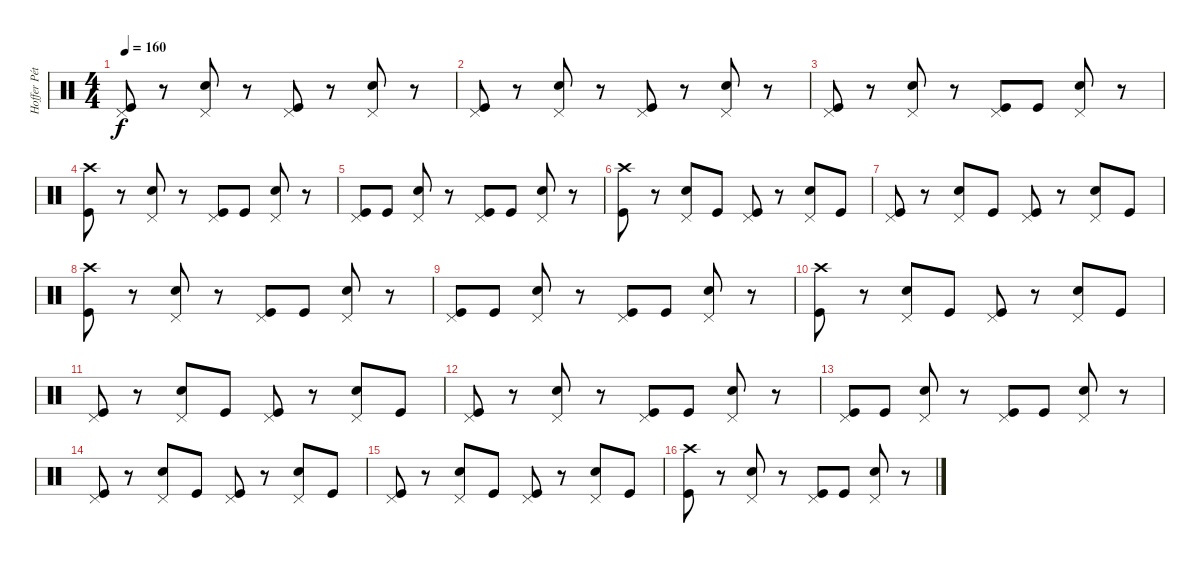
\track ("Hoffer Péter" "Hoffer Pét") {instrument percussion}
\staff {score}
\articulation defaults
\ts (4 4)
\tempo 160
\clef neutral
\ks c
("Pedal Hi-Hat (hit)" "Kick (hit)").8{dy f} r.8 ("Pedal Hi-Hat (hit)" "Electric Snare (hit)").8 r.8 ("Pedal Hi-Hat (hit)" "Kick (hit)").8 r.8 ("Pedal Hi-Hat (hit)" "Electric Snare (hit)").8 r.8 |
("Pedal Hi-Hat (hit)" "Kick (hit)").8 r.8 ("Pedal Hi-Hat (hit)" "Electric Snare (hit)").8 r.8 ("Pedal Hi-Hat (hit)" "Kick (hit)").8 r.8 ("Pedal Hi-Hat (hit)" "Electric Snare (hit)").8 r.8 |
("Pedal Hi-Hat (hit)" "Kick (hit)").8 r.8 ("Pedal Hi-Hat (hit)" "Electric Snare (hit)").8 r.8 ("Pedal Hi-Hat (hit)" "Kick (hit)").8 "Kick (hit)".8 ("Pedal Hi-Hat (hit)" "Electric Snare (hit)").8 r.8 |
("Crash high (hit)" "Kick (hit)").8 r.8 ("Pedal Hi-Hat (hit)" "Electric Snare (hit)").8 r.8 ("Pedal Hi-Hat (hit)" "Kick (hit)").8 "Kick (hit)".8 ("Pedal Hi-Hat (hit)" "Electric Snare (hit)").8 r.8 |
("Pedal Hi-Hat (hit)" "Kick (hit)").8 "Kick (hit)".8 ("Pedal Hi-Hat (hit)" "Electric Snare (hit)").8 r.8 ("Pedal Hi-Hat (hit)" "Kick (hit)").8 "Kick (hit)".8 ("Pedal Hi-Hat (hit)" "Electric Snare (hit)").8 r.8 |
("Crash high (hit)" "Kick (hit)").8 r.8 ("Pedal Hi-Hat (hit)" "Electric Snare (hit)").8 "Kick (hit)".8 ("Pedal Hi-Hat (hit)" "Kick (hit)").8 r.8 ("Pedal Hi-Hat (hit)" "Electric Snare (hit)").8 "Kick (hit)".8 |
("Pedal Hi-Hat (hit)" "Kick (hit)").8 r.8 ("Pedal Hi-Hat (hit)" "Electric Snare (hit)").8 "Kick (hit)".8 ("Pedal Hi-Hat (hit)" "Kick (hit)").8 r.8 ("Pedal Hi-Hat (hit)" "Electric Snare (hit)").8 "Kick (hit)".8 |
("Crash high (hit)" "Kick (hit)").8 r.8 ("Pedal Hi-Hat (hit)" "Electric Snare (hit)").8 r.8 ("Pedal Hi-Hat (hit)" "Kick (hit)").8 "Kick (hit)".8 ("Pedal Hi-Hat (hit)" "Electric Snare (hit)").8 r.8 |
("Pedal Hi-Hat (hit)" "Kick (hit)").8 "Kick (hit)".8 ("Pedal Hi-Hat (hit)" "Electric Snare (hit)").8 r.8 ("Pedal Hi-Hat (hit)" "Kick (hit)").8 "Kick (hit)".8 ("Pedal Hi-Hat (hit)" "Electric Snare (hit)").8 r.8 |
("Crash high (hit)" "Kick (hit)").8 r.8 ("Pedal Hi-Hat (hit)" "Electric Snare (hit)").8 "Kick (hit)".8 ("Pedal Hi-Hat (hit)" "Kick (hit)").8 r.8 ("Pedal Hi-Hat (hit)" "Electric Snare (hit)").8 "Kick (hit)".8 |
("Pedal Hi-Hat (hit)" "Kick (hit)").8 r.8 ("Pedal Hi-Hat (hit)" "Electric Snare (hit)").8 "Kick (hit)".8 ("Pedal Hi-Hat (hit)" "Kick (hit)").8 r.8 ("Pedal Hi-Hat (hit)" "Electric Snare (hit)").8 "Kick (hit)".8 |
("Pedal Hi-Hat (hit)" "Kick (hit)").8 r.8 ("Pedal Hi-Hat (hit)" "Electric Snare (hit)").8 r.8 ("Pedal Hi-Hat (hit)" "Kick (hit)").8 "Kick (hit)".8 ("Pedal Hi-Hat (hit)" "Electric Snare (hit)").8 r.8 |
("Pedal Hi-Hat (hit)" "Kick (hit)").8 "Kick (hit)".8 ("Pedal Hi-Hat (hit)" "Electric Snare (hit)").8 r.8 ("Pedal Hi-Hat (hit)" "Kick (hit)").8 "Kick (hit)".8 ("Pedal Hi-Hat (hit)" "Electric Snare (hit)").8 r.8 |
("Pedal Hi-Hat (hit)" "Kick (hit)").8 r.8 ("Pedal Hi-Hat (hit)" "Electric Snare (hit)").8 "Kick (hit)".8 ("Pedal Hi-Hat (hit)" "Kick (hit)").8 r.8 ("Pedal Hi-Hat (hit)" "Electric Snare (hit)").8 "Kick (hit)".8 |
("Pedal Hi-Hat (hit)" "Kick (hit)").8 r.8 ("Pedal Hi-Hat (hit)" "Electric Snare (hit)").8 "Kick (hit)".8 ("Pedal Hi-Hat (hit)" "Kick (hit)").8 r.8 ("Pedal Hi-Hat (hit)" "Electric Snare (hit)").8 "Kick (hit)".8 |
("Crash high (hit)" "Kick (hit)").8 r.8 ("Pedal Hi-Hat (hit)" "Electric Snare (hit)").8 r.8 ("Pedal Hi-Hat (hit)" "Kick (hit)").8 "Kick (hit)".8 ("Pedal Hi-Hat (hit)" "Electric Snare (hit)").8 r.8
